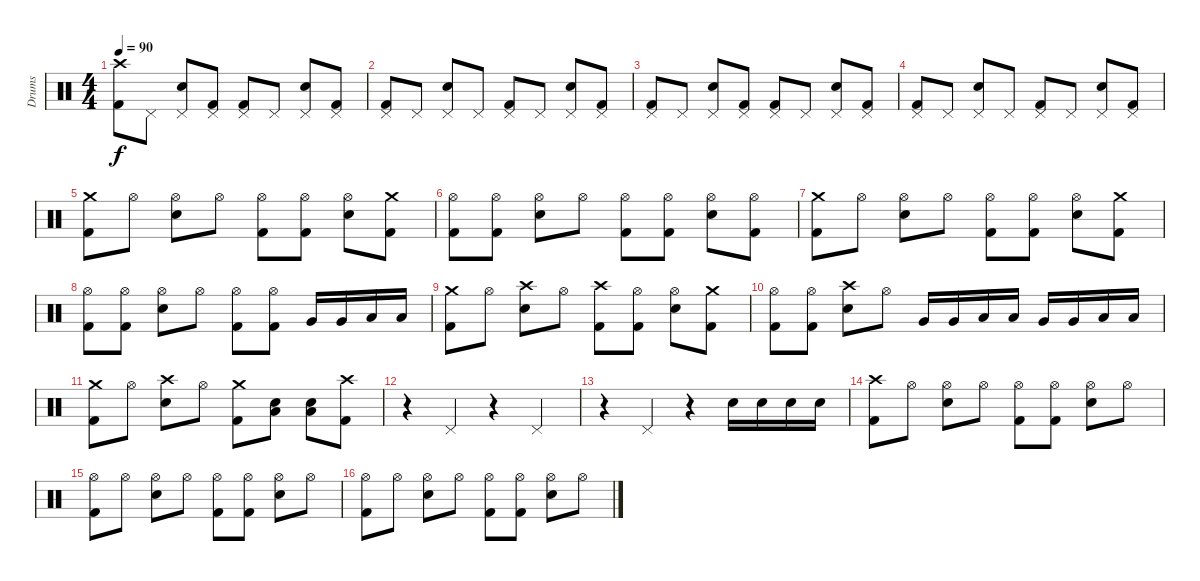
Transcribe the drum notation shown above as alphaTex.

\track ("Drums" "Drums") {instrument percussion}
\staff {score}
\articulation defaults
\ts (4 4)
\tempo 90
\clef neutral
\ks c
("Crash high (hit)" "Kick (hit) 2").8{dy f} "Pedal Hi-Hat (hit)".8 ("Pedal Hi-Hat (hit)" "Electric Snare (hit)").8 ("Pedal Hi-Hat (hit)" "Kick (hit) 2").8 ("Pedal Hi-Hat (hit)" "Kick (hit) 2").8 "Pedal Hi-Hat (hit)".8 ("Pedal Hi-Hat (hit)" "Electric Snare (hit)").8 ("Pedal Hi-Hat (hit)" "Kick (hit) 2").8 |
("Pedal Hi-Hat (hit)" "Kick (hit) 2").8 "Pedal Hi-Hat (hit)".8 ("Pedal Hi-Hat (hit)" "Electric Snare (hit)").8 "Pedal Hi-Hat (hit)".8 ("Pedal Hi-Hat (hit)" "Kick (hit) 2").8 "Pedal Hi-Hat (hit)".8 ("Pedal Hi-Hat (hit)" "Electric Snare (hit)").8 ("Pedal Hi-Hat (hit)" "Kick (hit) 2").8 |
("Pedal Hi-Hat (hit)" "Kick (hit) 2").8 "Pedal Hi-Hat (hit)".8 ("Pedal Hi-Hat (hit)" "Electric Snare (hit)").8 ("Pedal Hi-Hat (hit)" "Kick (hit) 2").8 ("Pedal Hi-Hat (hit)" "Kick (hit) 2").8 "Pedal Hi-Hat (hit)".8 ("Pedal Hi-Hat (hit)" "Electric Snare (hit)").8 ("Pedal Hi-Hat (hit)" "Kick (hit) 2").8 |
("Pedal Hi-Hat (hit)" "Kick (hit) 2").8 "Pedal Hi-Hat (hit)".8 ("Pedal Hi-Hat (hit)" "Electric Snare (hit)").8 "Pedal Hi-Hat (hit)".8 ("Pedal Hi-Hat (hit)" "Kick (hit) 2").8 "Pedal Hi-Hat (hit)".8 ("Pedal Hi-Hat (hit)" "Electric Snare (hit)").8 ("Pedal Hi-Hat (hit)" "Kick (hit) 2").8 |
("Crash medium (hit)" "Kick (hit) 2").8 "Hi-Hat (open)".8 ("Hi-Hat (open)" "Electric Snare (hit)").8 "Hi-Hat (open)".8 ("Hi-Hat (open)" "Kick (hit) 2").8 ("Hi-Hat (open)" "Kick (hit) 2").8 ("Hi-Hat (open)" "Electric Snare (hit)").8 ("Crash medium (hit)" "Kick (hit) 2").8 |
("Hi-Hat (open)" "Kick (hit) 2").8 ("Hi-Hat (open)" "Kick (hit) 2").8 ("Hi-Hat (open)" "Electric Snare (hit)").8 "Hi-Hat (open)".8 ("Hi-Hat (open)" "Kick (hit) 2").8 ("Hi-Hat (open)" "Kick (hit) 2").8 ("Hi-Hat (open)" "Electric Snare (hit)").8 ("Hi-Hat (open)" "Kick (hit) 2").8 |
("Crash medium (hit)" "Kick (hit) 2").8 "Hi-Hat (open)".8 ("Hi-Hat (open)" "Electric Snare (hit)").8 "Hi-Hat (open)".8 ("Hi-Hat (open)" "Kick (hit) 2").8 ("Hi-Hat (open)" "Kick (hit) 2").8 ("Hi-Hat (open)" "Electric Snare (hit)").8 ("Crash medium (hit)" "Kick (hit) 2").8 |
("Hi-Hat (open)" "Kick (hit) 2").8 ("Hi-Hat (open)" "Kick (hit) 2").8 ("Hi-Hat (open)" "Electric Snare (hit)").8 "Hi-Hat (open)".8 ("Hi-Hat (open)" "Kick (hit) 2").8 ("Hi-Hat (open)" "Kick (hit) 2").8 "Very Low Tom (hit)".16 "Very Low Tom (hit)".16 "Low Floor Tom (hit)".16 "Low Floor Tom (hit)".16 |
("Crash medium (hit)" "Kick (hit) 2").8 "Hi-Hat (open)".8 ("Crash high (hit)" "Electric Snare (hit)").8 "Hi-Hat (open)".8 ("Crash high (hit)" "Kick (hit) 2").8 ("Hi-Hat (open)" "Kick (hit) 2").8 ("Hi-Hat (open)" "Electric Snare (hit)").8 ("Crash medium (hit)" "Kick (hit) 2").8 |
("Hi-Hat (open)" "Kick (hit) 2").8 ("Hi-Hat (open)" "Kick (hit) 2").8 ("Crash high (hit)" "Electric Snare (hit)").8 "Hi-Hat (open)".8 "Very Low Tom (hit)".16 "Very Low Tom (hit)".16 "Low Floor Tom (hit)".16 "Low Floor Tom (hit)".16 "Very Low Tom (hit)".16 "Very Low Tom (hit)".16 "Low Floor Tom (hit)".16 "Low Floor Tom (hit)".16 |
("Crash medium (hit)" "Kick (hit) 2").8 "Hi-Hat (open)".8 ("Crash high (hit)" "Electric Snare (hit)").8 "Hi-Hat (open)".8 ("Crash medium (hit)" "Kick (hit) 2").8 ("Low Floor Tom (hit)" "Electric Snare (hit)").8 ("Low Floor Tom (hit)" "Electric Snare (hit)").8 ("Crash high (hit)" "Kick (hit) 2").8 |
r.4 "Pedal Hi-Hat (hit)".4 r.4 "Pedal Hi-Hat (hit)".4 |
r.4 "Pedal Hi-Hat (hit)".4 r.4 "Electric Snare (hit)".16 "Electric Snare (hit)".16 "Electric Snare (hit)".16 "Electric Snare (hit)".16 |
("Crash high (hit)" "Kick (hit) 2").8 "Hi-Hat (open)".8 ("Hi-Hat (open)" "Electric Snare (hit)").8 "Hi-Hat (open)".8 ("Hi-Hat (open)" "Kick (hit) 2").8 ("Hi-Hat (open)" "Kick (hit) 2").8 ("Hi-Hat (open)" "Electric Snare (hit)").8 "Hi-Hat (open)".8 |
("Hi-Hat (open)" "Kick (hit) 2").8 "Hi-Hat (open)".8 ("Hi-Hat (open)" "Electric Snare (hit)").8 "Hi-Hat (open)".8 ("Hi-Hat (open)" "Kick (hit) 2").8 ("Hi-Hat (open)" "Kick (hit) 2").8 ("Hi-Hat (open)" "Electric Snare (hit)").8 "Hi-Hat (open)".8 |
("Hi-Hat (open)" "Kick (hit) 2").8 "Hi-Hat (open)".8 ("Hi-Hat (open)" "Electric Snare (hit)").8 "Hi-Hat (open)".8 ("Hi-Hat (open)" "Kick (hit) 2").8 ("Hi-Hat (open)" "Kick (hit) 2").8 ("Hi-Hat (open)" "Electric Snare (hit)").8 "Hi-Hat (open)".8
